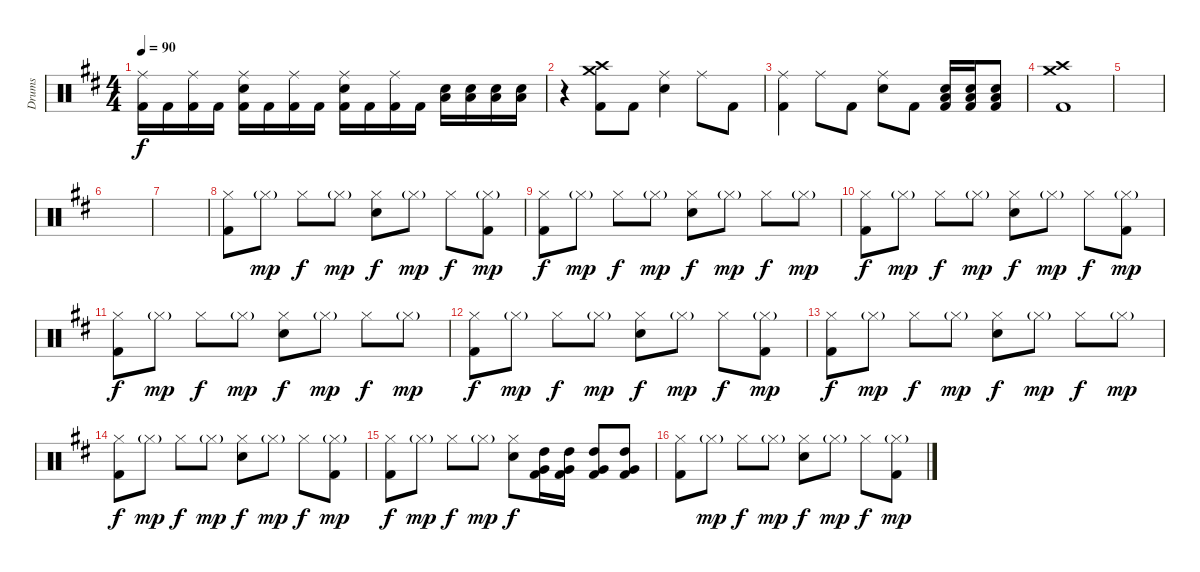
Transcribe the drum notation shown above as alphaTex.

\track ("Drums" "Drums") {instrument percussion}
\staff {score}
\articulation defaults
\ts (4 4)
\tempo 90
\clef neutral
\ks bminor
("Ride (middle)" "Kick (hit) 2").16{dy f} "Kick (hit) 2".16 ("Ride (middle)" "Kick (hit) 2").16 "Kick (hit) 2".16 ("Ride (middle)" "Snare (hit) 2" "Kick (hit) 2").16 "Kick (hit) 2".16 ("Ride (middle)" "Kick (hit) 2").16 "Kick (hit) 2".16 ("Ride (middle)" "Snare (hit) 2" "Kick (hit) 2").16 "Kick (hit) 2".16 ("Ride (middle)" "Kick (hit) 2").16 "Kick (hit) 2".16 ("Low Tom (hit)" "Snare (hit) 2").16 ("Low Tom (hit)" "Snare (hit) 2").16 ("Low Tom (hit)" "Snare (hit) 2").16 ("Low Tom (hit)" "Snare (hit) 2").16 |
r.4 ("Crash medium (hit)" "Crash high (hit)" "Kick (hit) 2").8 "Kick (hit) 2".8 ("Ride (middle)" "Snare (hit) 2").4 "Ride (middle)".8 "Kick (hit) 2".8 |
("Ride (middle)" "Kick (hit) 2").4 "Ride (middle)".8 "Kick (hit) 2".8 ("Ride (middle)" "Snare (hit) 2").8 "Kick (hit) 2".8 ("Low Tom (hit)" "Snare (hit) 2" "Kick (hit) 2").16 ("Low Tom (hit)" "Snare (hit) 2" "Kick (hit) 2").16 ("Low Tom (hit)" "Snare (hit) 2" "Kick (hit) 2").8 |
("Crash high (hit)" "Crash medium (hit)" "Kick (hit) 2").1{volume 3} |
|
|
|
("Hi-Hat (closed)" "Kick (hit) 2").8 "Hi-Hat (closed)"{g}.8{dy mp} "Hi-Hat (closed)".8{dy f} "Hi-Hat (closed)"{g}.8{dy mp} ("Hi-Hat (closed)" "Snare (hit) 2").8{dy f} "Hi-Hat (closed)"{g}.8{dy mp} "Hi-Hat (closed)".8{dy f} ("Hi-Hat (closed)"{g} "Kick (hit) 2").8{dy mp} |
("Hi-Hat (closed)" "Kick (hit) 2").8{dy f} "Hi-Hat (closed)"{g}.8{dy mp} "Hi-Hat (closed)".8{dy f} "Hi-Hat (closed)"{g}.8{dy mp} ("Hi-Hat (closed)" "Snare (hit) 2").8{dy f} "Hi-Hat (closed)"{g}.8{dy mp} "Hi-Hat (closed)".8{dy f} "Hi-Hat (closed)"{g}.8{dy mp} |
("Hi-Hat (closed)" "Kick (hit) 2").8{dy f} "Hi-Hat (closed)"{g}.8{dy mp} "Hi-Hat (closed)".8{dy f} "Hi-Hat (closed)"{g}.8{dy mp} ("Hi-Hat (closed)" "Snare (hit) 2").8{dy f} "Hi-Hat (closed)"{g}.8{dy mp} "Hi-Hat (closed)".8{dy f} ("Hi-Hat (closed)"{g} "Kick (hit) 2").8{dy mp} |
("Hi-Hat (closed)" "Kick (hit) 2").8{dy f} "Hi-Hat (closed)"{g}.8{dy mp} "Hi-Hat (closed)".8{dy f} "Hi-Hat (closed)"{g}.8{dy mp} ("Hi-Hat (closed)" "Snare (hit) 2").8{dy f} "Hi-Hat (closed)"{g}.8{dy mp} "Hi-Hat (closed)".8{dy f} "Hi-Hat (closed)"{g}.8{dy mp} |
("Hi-Hat (closed)" "Kick (hit) 2").8{dy f} "Hi-Hat (closed)"{g}.8{dy mp} "Hi-Hat (closed)".8{dy f} "Hi-Hat (closed)"{g}.8{dy mp} ("Hi-Hat (closed)" "Snare (hit) 2").8{dy f} "Hi-Hat (closed)"{g}.8{dy mp} "Hi-Hat (closed)".8{dy f} ("Hi-Hat (closed)"{g} "Kick (hit) 2").8{dy mp} |
("Hi-Hat (closed)" "Kick (hit) 2").8{dy f} "Hi-Hat (closed)"{g}.8{dy mp} "Hi-Hat (closed)".8{dy f} "Hi-Hat (closed)"{g}.8{dy mp} ("Hi-Hat (closed)" "Snare (hit) 2").8{dy f} "Hi-Hat (closed)"{g}.8{dy mp} "Hi-Hat (closed)".8{dy f} "Hi-Hat (closed)"{g}.8{dy mp} |
("Hi-Hat (closed)" "Kick (hit) 2").8{dy f} "Hi-Hat (closed)"{g}.8{dy mp} "Hi-Hat (closed)".8{dy f} "Hi-Hat (closed)"{g}.8{dy mp} ("Hi-Hat (closed)" "Snare (hit) 2").8{dy f} "Hi-Hat (closed)"{g}.8{dy mp} "Hi-Hat (closed)".8{dy f} ("Hi-Hat (closed)"{g} "Kick (hit) 2").8{dy mp} |
("Hi-Hat (closed)" "Kick (hit) 2").8{dy f} "Hi-Hat (closed)"{g}.8{dy mp} "Hi-Hat (closed)".8{dy f} "Hi-Hat (closed)"{g}.8{dy mp} ("Hi-Hat (closed)" "Snare (hit) 2").8{dy f} ("High Tom (hit)" "Very Low Tom (hit)" "Kick (hit) 2").16 ("High Tom (hit)" "Very Low Tom (hit)" "Kick (hit) 2").16 ("High Tom (hit)" "Very Low Tom (hit)" "Kick (hit) 2").8 ("High Tom (hit)" "Very Low Tom (hit)" "Kick (hit) 2").8 |
("Hi-Hat (closed)" "Kick (hit) 2").8 "Hi-Hat (closed)"{g}.8{dy mp} "Hi-Hat (closed)".8{dy f} "Hi-Hat (closed)"{g}.8{dy mp} ("Hi-Hat (closed)" "Snare (hit) 2").8{dy f} "Hi-Hat (closed)"{g}.8{dy mp} "Hi-Hat (closed)".8{dy f} ("Hi-Hat (closed)"{g} "Kick (hit) 2").8{dy mp}
